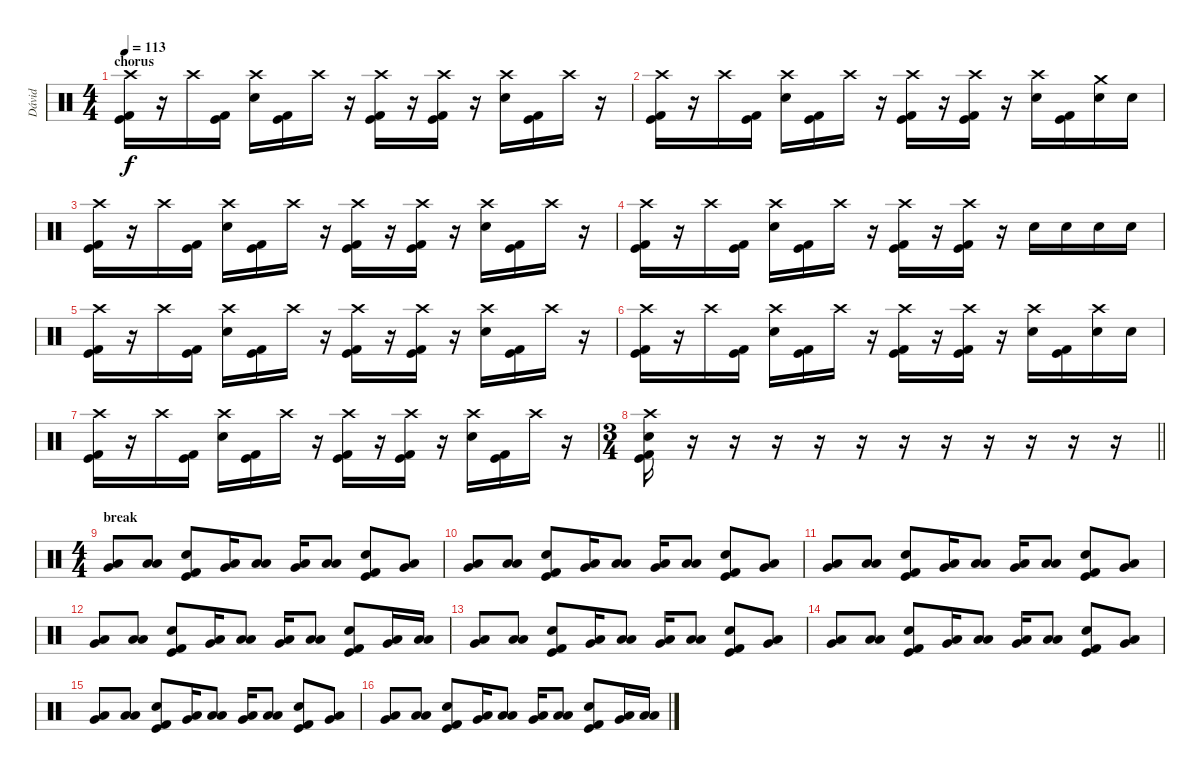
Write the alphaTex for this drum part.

\track ("Dávid" "Dávid") {instrument percussion}
\staff {score}
\articulation defaults
\ts (4 4)
\section ("" "chorus")
\tempo 113
\clef neutral
\ks c
("Crash high (hit)" "Kick (hit) 2" "Kick (hit)").16{dy f} r.16 "Crash high (hit)".16 ("Kick (hit) 2" "Kick (hit)").16 ("Crash high (hit)" "Snare (hit) 2").16 ("Kick (hit) 2" "Kick (hit)").16 "Crash high (hit)".16 r.16 ("Crash high (hit)" "Kick (hit) 2" "Kick (hit)").16 r.16 ("Crash high (hit)" "Kick (hit) 2" "Kick (hit)").16 r.16 ("Crash high (hit)" "Snare (hit) 2").16 ("Kick (hit) 2" "Kick (hit)").16 "Crash high (hit)".16 r.16 |
("Crash high (hit)" "Kick (hit) 2" "Kick (hit)").16 r.16 "Crash high (hit)".16 ("Kick (hit) 2" "Kick (hit)").16 ("Crash high (hit)" "Snare (hit) 2").16 ("Kick (hit) 2" "Kick (hit)").16 "Crash high (hit)".16 r.16 ("Crash high (hit)" "Kick (hit) 2" "Kick (hit)").16 r.16 ("Crash high (hit)" "Kick (hit) 2" "Kick (hit)").16 r.16 ("Crash high (hit)" "Snare (hit) 2").16 ("Kick (hit) 2" "Kick (hit)").16 ("Crash medium (hit)" "Snare (hit) 2").16 "Snare (hit) 2".16 |
("Crash high (hit)" "Kick (hit) 2" "Kick (hit)").16 r.16 "Crash high (hit)".16 ("Kick (hit) 2" "Kick (hit)").16 ("Crash high (hit)" "Snare (hit) 2").16 ("Kick (hit) 2" "Kick (hit)").16 "Crash high (hit)".16 r.16 ("Crash high (hit)" "Kick (hit) 2" "Kick (hit)").16 r.16 ("Crash high (hit)" "Kick (hit) 2" "Kick (hit)").16 r.16 ("Crash high (hit)" "Snare (hit) 2").16 ("Kick (hit) 2" "Kick (hit)").16 "Crash high (hit)".16 r.16 |
("Crash high (hit)" "Kick (hit) 2" "Kick (hit)").16 r.16 "Crash high (hit)".16 ("Kick (hit) 2" "Kick (hit)").16 ("Crash high (hit)" "Snare (hit) 2").16 ("Kick (hit) 2" "Kick (hit)").16 "Crash high (hit)".16 r.16 ("Crash high (hit)" "Kick (hit) 2" "Kick (hit)").16 r.16 ("Crash high (hit)" "Kick (hit) 2" "Kick (hit)").16 r.16 "Snare (hit) 2".16 "Snare (hit) 2".16 "Snare (hit) 2".16 "Snare (hit) 2".16 |
("Crash high (hit)" "Kick (hit) 2" "Kick (hit)").16 r.16 "Crash high (hit)".16 ("Kick (hit) 2" "Kick (hit)").16 ("Crash high (hit)" "Snare (hit) 2").16 ("Kick (hit) 2" "Kick (hit)").16 "Crash high (hit)".16 r.16 ("Crash high (hit)" "Kick (hit) 2" "Kick (hit)").16 r.16 ("Crash high (hit)" "Kick (hit) 2" "Kick (hit)").16 r.16 ("Crash high (hit)" "Snare (hit) 2").16 ("Kick (hit) 2" "Kick (hit)").16 "Crash high (hit)".16 r.16 |
("Crash high (hit)" "Kick (hit) 2" "Kick (hit)").16 r.16 "Crash high (hit)".16 ("Kick (hit) 2" "Kick (hit)").16 ("Crash high (hit)" "Snare (hit) 2").16 ("Kick (hit) 2" "Kick (hit)").16 "Crash high (hit)".16 r.16 ("Crash high (hit)" "Kick (hit) 2" "Kick (hit)").16 r.16 ("Crash high (hit)" "Kick (hit) 2" "Kick (hit)").16 r.16 ("Crash high (hit)" "Snare (hit) 2").16 ("Kick (hit) 2" "Kick (hit)").16 ("Crash high (hit)" "Snare (hit) 2").16 "Snare (hit) 2".16 |
("Crash high (hit)" "Kick (hit) 2" "Kick (hit)").16 r.16 "Crash high (hit)".16 ("Kick (hit) 2" "Kick (hit)").16 ("Crash high (hit)" "Snare (hit) 2").16 ("Kick (hit) 2" "Kick (hit)").16 "Crash high (hit)".16 r.16 ("Crash high (hit)" "Kick (hit) 2" "Kick (hit)").16 r.16 ("Crash high (hit)" "Kick (hit) 2" "Kick (hit)").16 r.16 ("Crash high (hit)" "Snare (hit) 2").16 ("Kick (hit) 2" "Kick (hit)").16 "Crash high (hit)".16 r.16 |
\ts (3 4)
\barLineRight lightlight
("Crash high (hit)" "Snare (hit) 2" "Kick (hit) 2" "Kick (hit)").16 r.16 r.16 r.16 r.16 r.16 r.16 r.16 r.16 r.16 r.16 r.16 |
\ts (4 4)
\section ("" "break")
("Low Tom (hit)" "Very Low Tom (hit)").8 ("Low Tom (hit)" "Low Floor Tom (hit)").8 ("Snare (hit) 2" "Kick (hit) 2" "Kick (hit)").8 ("Low Tom (hit)" "Very Low Tom (hit)").16 ("Low Tom (hit)" "Low Floor Tom (hit)").8 ("Low Tom (hit)" "Very Low Tom (hit)").16 ("Low Floor Tom (hit)" "Low Tom (hit)").8 ("Snare (hit) 2" "Kick (hit) 2" "Kick (hit)").8 ("Low Tom (hit)" "Very Low Tom (hit)").8 |
("Low Tom (hit)" "Very Low Tom (hit)").8 ("Low Tom (hit)" "Low Floor Tom (hit)").8 ("Snare (hit) 2" "Kick (hit) 2" "Kick (hit)").8 ("Low Tom (hit)" "Very Low Tom (hit)").16 ("Low Tom (hit)" "Low Floor Tom (hit)").8 ("Low Tom (hit)" "Very Low Tom (hit)").16 ("Low Floor Tom (hit)" "Low Tom (hit)").8 ("Snare (hit) 2" "Kick (hit) 2" "Kick (hit)").8 ("Low Tom (hit)" "Very Low Tom (hit)").8 |
("Low Tom (hit)" "Very Low Tom (hit)").8 ("Low Tom (hit)" "Low Floor Tom (hit)").8 ("Snare (hit) 2" "Kick (hit) 2" "Kick (hit)").8 ("Low Tom (hit)" "Very Low Tom (hit)").16 ("Low Tom (hit)" "Low Floor Tom (hit)").8 ("Low Tom (hit)" "Very Low Tom (hit)").16 ("Low Floor Tom (hit)" "Low Tom (hit)").8 ("Snare (hit) 2" "Kick (hit) 2" "Kick (hit)").8 ("Low Tom (hit)" "Very Low Tom (hit)").8 |
("Low Tom (hit)" "Very Low Tom (hit)").8 ("Low Tom (hit)" "Low Floor Tom (hit)").8 ("Snare (hit) 2" "Kick (hit) 2" "Kick (hit)").8 ("Low Tom (hit)" "Very Low Tom (hit)").16 ("Low Tom (hit)" "Low Floor Tom (hit)").8 ("Low Tom (hit)" "Very Low Tom (hit)").16 ("Low Floor Tom (hit)" "Low Tom (hit)").8 ("Snare (hit) 2" "Kick (hit) 2" "Kick (hit)").8 ("Low Tom (hit)" "Very Low Tom (hit)").16 ("Low Tom (hit)" "Low Floor Tom (hit)").16 |
("Low Tom (hit)" "Very Low Tom (hit)").8 ("Low Tom (hit)" "Low Floor Tom (hit)").8 ("Snare (hit) 2" "Kick (hit) 2" "Kick (hit)").8 ("Low Tom (hit)" "Very Low Tom (hit)").16 ("Low Tom (hit)" "Low Floor Tom (hit)").8 ("Low Tom (hit)" "Very Low Tom (hit)").16 ("Low Floor Tom (hit)" "Low Tom (hit)").8 ("Snare (hit) 2" "Kick (hit) 2" "Kick (hit)").8 ("Low Tom (hit)" "Very Low Tom (hit)").8 |
("Low Tom (hit)" "Very Low Tom (hit)").8 ("Low Tom (hit)" "Low Floor Tom (hit)").8 ("Snare (hit) 2" "Kick (hit) 2" "Kick (hit)").8 ("Low Tom (hit)" "Very Low Tom (hit)").16 ("Low Tom (hit)" "Low Floor Tom (hit)").8 ("Low Tom (hit)" "Very Low Tom (hit)").16 ("Low Floor Tom (hit)" "Low Tom (hit)").8 ("Snare (hit) 2" "Kick (hit) 2" "Kick (hit)").8 ("Low Tom (hit)" "Very Low Tom (hit)").8 |
("Low Tom (hit)" "Very Low Tom (hit)").8 ("Low Tom (hit)" "Low Floor Tom (hit)").8 ("Snare (hit) 2" "Kick (hit) 2" "Kick (hit)").8 ("Low Tom (hit)" "Very Low Tom (hit)").16 ("Low Tom (hit)" "Low Floor Tom (hit)").8 ("Low Tom (hit)" "Very Low Tom (hit)").16 ("Low Floor Tom (hit)" "Low Tom (hit)").8 ("Snare (hit) 2" "Kick (hit) 2" "Kick (hit)").8 ("Low Tom (hit)" "Very Low Tom (hit)").8 |
("Low Tom (hit)" "Very Low Tom (hit)").8 ("Low Tom (hit)" "Low Floor Tom (hit)").8 ("Snare (hit) 2" "Kick (hit) 2" "Kick (hit)").8 ("Low Tom (hit)" "Very Low Tom (hit)").16 ("Low Tom (hit)" "Low Floor Tom (hit)").8 ("Low Tom (hit)" "Very Low Tom (hit)").16 ("Low Floor Tom (hit)" "Low Tom (hit)").8 ("Snare (hit) 2" "Kick (hit) 2" "Kick (hit)").8 ("Low Tom (hit)" "Very Low Tom (hit)").16 ("Low Tom (hit)" "Low Floor Tom (hit)").16
